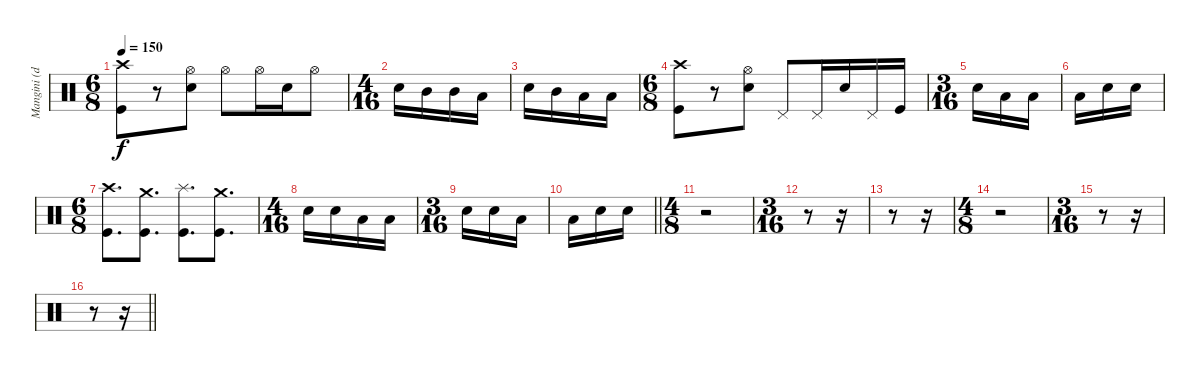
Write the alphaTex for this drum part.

\track ("Mangini (drums)" "Mangini (d") {instrument percussion}
\staff {score}
\articulation defaults
\ts (6 8)
\tempo 150
\clef neutral
\ks aminor
("Crash high (hit)" "Kick (hit)").8{dy f} r.8 ("Hi-Hat (open)" "Snare (hit) 2").8 "Hi-Hat (open)".8 "Hi-Hat (open)".16 "Snare (hit) 2".16 "Hi-Hat (open)".8 |
\ts (4 16)
"Snare (hit) 2".16{beam merge} "Mid Tom (hit)".16{beam merge} "Mid Tom (hit)".16{beam merge} "Low Tom (hit)".16 |
"Snare (hit) 2".16{beam merge} "Mid Tom (hit)".16{beam merge} "Low Tom (hit)".16{beam merge} "Low Tom (hit)".16 |
\ts (6 8)
("Crash high (hit)" "Kick (hit)").8 r.8 ("Hi-Hat (open)" "Snare (hit) 2").8 "Pedal Hi-Hat (hit)".8 "Pedal Hi-Hat (hit)".16 "Snare (hit) 2".16 "Pedal Hi-Hat (hit)".16 "Kick (hit)".16 |
\ts (3 16)
"Snare (hit) 2".16{beam merge} "Low Tom (hit)".16{beam merge} "Low Tom (hit)".16 |
"Low Tom (hit)".16{beam merge} "Snare (hit) 2".16{beam merge} "Snare (hit) 2".16 |
\ts (6 8)
("Crash high (hit)" "Kick (hit)").8{d} ("Crash medium (hit)" "Kick (hit)").8{d} ("Splash (hit)" "Kick (hit)").8{d} ("Crash medium (hit)" "Kick (hit)").8{d} |
\ts (4 16)
"Snare (hit) 2".16{beam merge} "Snare (hit) 2".16{beam merge} "Low Tom (hit)".16{beam merge} "Low Tom (hit)".16 |
\ts (3 16)
"Snare (hit) 2".16{beam merge} "Snare (hit) 2".16{beam merge} "Low Tom (hit)".16 |
\barLineRight lightlight "Low Tom (hit)".16{beam merge} "Snare (hit) 2".16{beam merge} "Snare (hit) 2".16
|
\ts (4 8)
r.2 |
\ts (3 16)
r.8 r.16 |
r.8 r.16 |
\ts (4 8)
r.2 |
\ts (3 16)
r.8 r.16 |
\barLineRight lightlight
r.8 r.16
